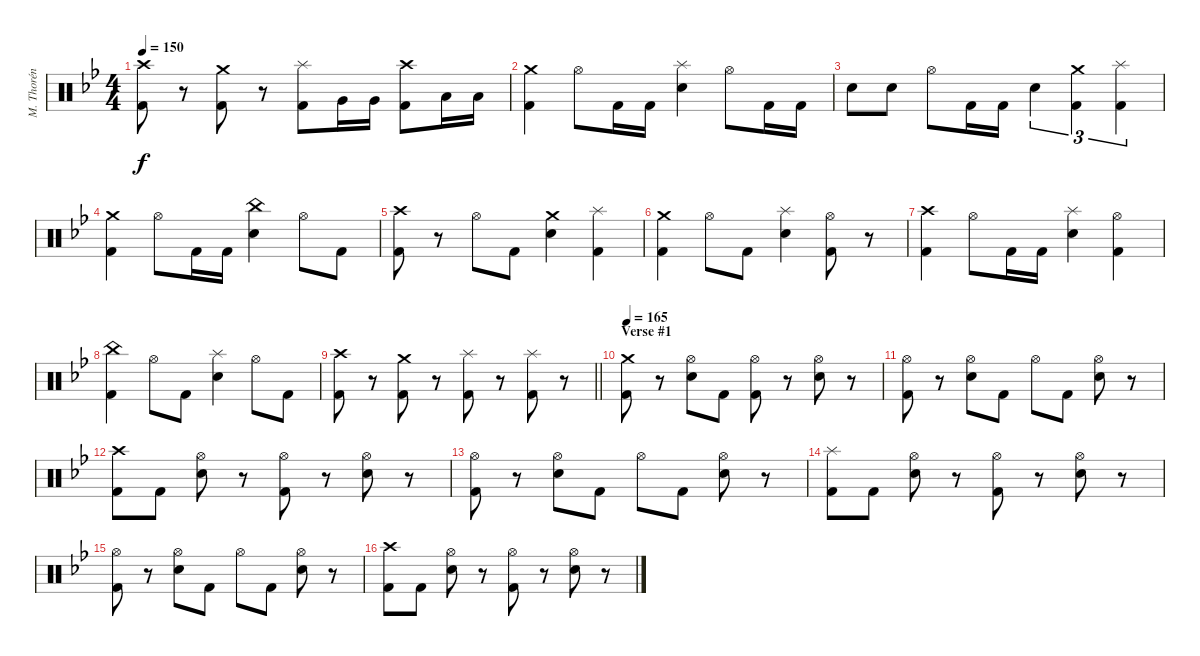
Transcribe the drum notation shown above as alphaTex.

\track ("M. Thorén (Drums)" "M. Thorén ") {instrument percussion}
\staff {score}
\articulation defaults
\ts (4 4)
\tempo 150
\clef neutral
\ks gminor
("Crash high (hit)" "Kick (hit) 2").8{dy f} r.8 ("Crash medium (hit)" "Kick (hit) 2").8 r.8 ("Splash (hit)" "Kick (hit) 2").8 "Very Low Tom (hit)".16 "Very Low Tom (hit)".16 ("Crash high (hit)" "Kick (hit) 2").8 "Low Floor Tom (hit)".16 "Low Floor Tom (hit)".16 |
("Crash medium (hit)" "Kick (hit) 2").4 "Hi-Hat (open)".8 "Kick (hit) 2".16 "Kick (hit) 2".16 ("Splash (hit)" "Electric Snare (hit)").4 "Hi-Hat (open)".8 "Kick (hit) 2".16 "Kick (hit) 2".16 |
"Electric Snare (hit)".8 "Electric Snare (hit)".8 "Hi-Hat (open)".8 "Kick (hit) 2".16 "Kick (hit) 2".16 "Electric Snare (hit)".4{tu (3 2)} ("Crash medium (hit)" "Kick (hit) 2").4{tu (3 2)} ("Splash (hit)" "Kick (hit) 2").4{tu (3 2)} |
("Crash medium (hit)" "Kick (hit) 2").4 "Hi-Hat (open)".8 "Kick (hit) 2".16 "Kick (hit) 2".16 ("China (hit)" "Electric Snare (hit)").4 "Hi-Hat (open)".8 "Kick (hit) 2".8 |
("Crash high (hit)" "Kick (hit) 2").8 r.8 "Hi-Hat (open)".8 "Kick (hit) 2".8 ("Crash medium (hit)" "Electric Snare (hit)").4 ("Splash (hit)" "Kick (hit) 2").4 |
("Crash medium (hit)" "Kick (hit) 2").4 "Hi-Hat (open)".8 "Kick (hit) 2".8 ("Splash (hit)" "Electric Snare (hit)").4 ("Hi-Hat (open)" "Kick (hit) 2").8 r.8 |
("Crash high (hit)" "Kick (hit) 2").4 "Hi-Hat (open)".8 "Kick (hit) 2".16 "Kick (hit) 2".16 ("Splash (hit)" "Electric Snare (hit)").4 ("Hi-Hat (open)" "Kick (hit) 2").4 |
("China (hit)" "Kick (hit) 2").4 "Hi-Hat (open)".8 "Kick (hit) 2".8 ("Splash (hit)" "Electric Snare (hit)").4 "Hi-Hat (open)".8 "Kick (hit) 2".8 |
\barLineRight lightlight
("Crash high (hit)" "Kick (hit) 2").8 r.8 ("Crash medium (hit)" "Kick (hit) 2").8 r.8 ("Splash (hit)" "Kick (hit) 2").8 r.8 ("Splash (hit)" "Kick (hit) 2").8 r.8{volume 0} |
\section ("" "Verse #1")
\tempo 165
("Crash medium (hit)" "Kick (hit) 2").8{volume 12} r.8 ("Hi-Hat (open)" "Electric Snare (hit)").8 "Kick (hit) 2".8 ("Hi-Hat (open)" "Kick (hit) 2").8 r.8 ("Hi-Hat (open)" "Electric Snare (hit)").8 r.8 |
("Hi-Hat (open)" "Kick (hit) 2").8 r.8 ("Hi-Hat (open)" "Electric Snare (hit)").8 "Kick (hit) 2".8 "Hi-Hat (open)".8 "Kick (hit) 2".8 ("Hi-Hat (open)" "Electric Snare (hit)").8 r.8 |
("Crash high (hit)" "Kick (hit) 2").8 "Kick (hit) 2".8 ("Hi-Hat (open)" "Electric Snare (hit)").8 r.8 ("Hi-Hat (open)" "Kick (hit) 2").8 r.8 ("Hi-Hat (open)" "Electric Snare (hit)").8 r.8 |
("Hi-Hat (open)" "Kick (hit) 2").8 r.8 ("Hi-Hat (open)" "Electric Snare (hit)").8 "Kick (hit) 2".8 "Hi-Hat (open)".8 "Kick (hit) 2".8 ("Hi-Hat (open)" "Electric Snare (hit)").8 r.8 |
("Splash (hit)" "Kick (hit) 2").8 "Kick (hit) 2".8 ("Hi-Hat (open)" "Electric Snare (hit)").8 r.8 ("Hi-Hat (open)" "Kick (hit) 2").8 r.8 ("Hi-Hat (open)" "Electric Snare (hit)").8 r.8 |
("Hi-Hat (open)" "Kick (hit) 2").8 r.8 ("Hi-Hat (open)" "Electric Snare (hit)").8 "Kick (hit) 2".8 "Hi-Hat (open)".8 "Kick (hit) 2".8 ("Hi-Hat (open)" "Electric Snare (hit)").8 r.8 |
("Crash high (hit)" "Kick (hit) 2").8 "Kick (hit) 2".8 ("Hi-Hat (open)" "Electric Snare (hit)").8 r.8 ("Hi-Hat (open)" "Kick (hit) 2").8 r.8 ("Hi-Hat (open)" "Electric Snare (hit)").8 r.8
